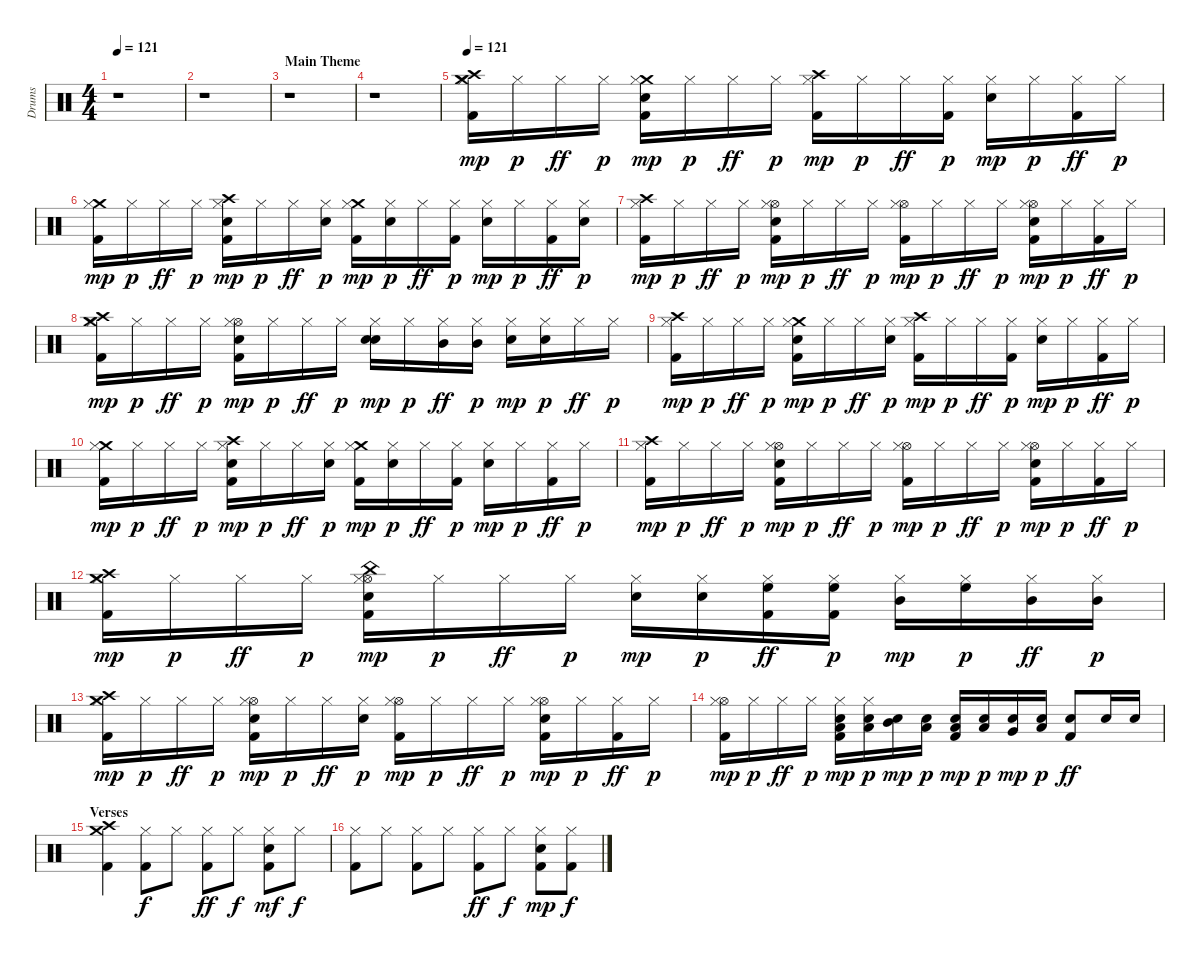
\track ("Drums" "Drums") {instrument percussion}
\staff {score}
\articulation defaults
\ts (4 4)
\tempo 121
\clef neutral
\ks c
r.1{dy mp} |
r.1 |
\section ("" "Main Theme")
r.1 |
r.1 |
\tempo 121
("Kick (hit) 2" "Crash high (hit)" "Crash medium (hit)" "Hi-Hat (closed)").16{balance 8} "Hi-Hat (closed)".16{dy p} "Hi-Hat (closed)".16{dy ff} "Hi-Hat (closed)".16{dy p} ("Crash medium (hit)" "Snare (hit) 2" "Kick (hit) 2" "Hi-Hat (closed)").16{dy mp} "Hi-Hat (closed)".16{dy p} "Hi-Hat (closed)".16{dy ff} "Hi-Hat (closed)".16{dy p} ("Crash high (hit)" "Kick (hit) 2" "Hi-Hat (closed)").16{dy mp} "Hi-Hat (closed)".16{dy p} "Hi-Hat (closed)".16{dy ff} ("Kick (hit) 2" "Hi-Hat (closed)").16{dy p} ("Electric Snare (hit)" "Hi-Hat (closed)").16{dy mp} "Hi-Hat (closed)".16{dy p} ("Kick (hit) 2" "Hi-Hat (closed)").16{dy ff} "Hi-Hat (closed)".16{dy p} |
("Crash medium (hit)" "Kick (hit) 2" "Hi-Hat (closed)").16{dy mp} "Hi-Hat (closed)".16{dy p} "Hi-Hat (closed)".16{dy ff} "Hi-Hat (closed)".16{dy p} ("Crash high (hit)" "Electric Snare (hit)" "Kick (hit) 2" "Hi-Hat (closed)").16{dy mp} "Hi-Hat (closed)".16{dy p} "Hi-Hat (closed)".16{dy ff} ("Electric Snare (hit)" "Hi-Hat (closed)").16{dy p} ("Kick (hit) 2" "Crash medium (hit)" "Hi-Hat (closed)").16{dy mp} ("Electric Snare (hit)" "Hi-Hat (closed)").16{dy p} "Hi-Hat (closed)".16{dy ff} ("Kick (hit) 2" "Hi-Hat (closed)").16{dy p} ("Electric Snare (hit)" "Hi-Hat (closed)").16{dy mp} "Hi-Hat (closed)".16{dy p} ("Kick (hit) 2" "Hi-Hat (closed)").16{dy ff} ("Electric Snare (hit)" "Hi-Hat (closed)").16{dy p} |
("Crash high (hit)" "Kick (hit) 2" "Hi-Hat (closed)").16{dy mp} "Hi-Hat (closed)".16{dy p} "Hi-Hat (closed)".16{dy ff} "Hi-Hat (closed)".16{dy p} ("Hi-Hat (open)" "Electric Snare (hit)" "Kick (hit) 2" "Hi-Hat (closed)").16{dy mp} "Hi-Hat (closed)".16{dy p} "Hi-Hat (closed)".16{dy ff} "Hi-Hat (closed)".16{dy p} ("Kick (hit) 2" "Hi-Hat (open)" "Hi-Hat (closed)").16{dy mp} "Hi-Hat (closed)".16{dy p} "Hi-Hat (closed)".16{dy ff} "Hi-Hat (closed)".16{dy p} ("Hi-Hat (open)" "Electric Snare (hit)" "Kick (hit) 2" "Hi-Hat (closed)").16{dy mp} "Hi-Hat (closed)".16{dy p} ("Kick (hit) 2" "Hi-Hat (closed)").16{dy ff} "Hi-Hat (closed)".16{dy p} |
("Kick (hit) 2" "Crash high (hit)" "Crash medium (hit)" "Hi-Hat (closed)").16{dy mp} "Hi-Hat (closed)".16{dy p} "Hi-Hat (closed)".16{dy ff} "Hi-Hat (closed)".16{dy p} ("Hi-Hat (open)" "Electric Snare (hit)" "Kick (hit) 2" "Hi-Hat (closed)").16{dy mp} "Hi-Hat (closed)".16{dy p} "Hi-Hat (closed)".16{dy ff} "Hi-Hat (closed)".16{dy p} ("Snare (hit) 2" "Electric Snare (hit)" "Hi-Hat (closed)").16{dy mp} "Hi-Hat (closed)".16{dy p} ("Mid Tom (hit)" "Hi-Hat (closed)").16{dy ff} ("Mid Tom (hit)" "Hi-Hat (closed)").16{dy p} ("Electric Snare (hit)" "Hi-Hat (closed)").16{dy mp} ("Electric Snare (hit)" "Hi-Hat (closed)").16{dy p} "Hi-Hat (closed)".16{dy ff} "Hi-Hat (closed)".16{dy p} |
("Crash high (hit)" "Kick (hit) 2" "Hi-Hat (closed)").16{dy mp} "Hi-Hat (closed)".16{dy p} "Hi-Hat (closed)".16{dy ff} "Hi-Hat (closed)".16{dy p} ("Crash medium (hit)" "Electric Snare (hit)" "Kick (hit) 2" "Hi-Hat (closed)").16{dy mp} "Hi-Hat (closed)".16{dy p} "Hi-Hat (closed)".16{dy ff} ("Electric Snare (hit)" "Hi-Hat (closed)").16{dy p} ("Crash high (hit)" "Kick (hit) 2" "Hi-Hat (closed)").16{dy mp} "Hi-Hat (closed)".16{dy p} "Hi-Hat (closed)".16{dy ff} ("Kick (hit) 2" "Hi-Hat (closed)").16{dy p} ("Electric Snare (hit)" "Hi-Hat (closed)").16{dy mp} "Hi-Hat (closed)".16{dy p} ("Kick (hit) 2" "Hi-Hat (closed)").16{dy ff} "Hi-Hat (closed)".16{dy p} |
("Crash medium (hit)" "Kick (hit) 2" "Hi-Hat (closed)").16{dy mp} "Hi-Hat (closed)".16{dy p} "Hi-Hat (closed)".16{dy ff} "Hi-Hat (closed)".16{dy p} ("Crash high (hit)" "Electric Snare (hit)" "Kick (hit) 2" "Hi-Hat (closed)").16{dy mp} "Hi-Hat (closed)".16{dy p} "Hi-Hat (closed)".16{dy ff} ("Electric Snare (hit)" "Hi-Hat (closed)").16{dy p} ("Kick (hit) 2" "Crash medium (hit)" "Hi-Hat (closed)").16{dy mp} ("Electric Snare (hit)" "Hi-Hat (closed)").16{dy p} "Hi-Hat (closed)".16{dy ff} ("Kick (hit) 2" "Hi-Hat (closed)").16{dy p} ("Electric Snare (hit)" "Hi-Hat (closed)").16{dy mp} "Hi-Hat (closed)".16{dy p} ("Kick (hit) 2" "Hi-Hat (closed)").16{dy ff} "Hi-Hat (closed)".16{dy p} |
("Crash high (hit)" "Kick (hit) 2" "Hi-Hat (closed)").16{dy mp} "Hi-Hat (closed)".16{dy p} "Hi-Hat (closed)".16{dy ff} "Hi-Hat (closed)".16{dy p} ("Hi-Hat (open)" "Electric Snare (hit)" "Kick (hit) 2" "Hi-Hat (closed)").16{dy mp} "Hi-Hat (closed)".16{dy p} "Hi-Hat (closed)".16{dy ff} "Hi-Hat (closed)".16{dy p} ("Kick (hit) 2" "Hi-Hat (open)" "Hi-Hat (closed)").16{dy mp} "Hi-Hat (closed)".16{dy p} "Hi-Hat (closed)".16{dy ff} "Hi-Hat (closed)".16{dy p} ("Hi-Hat (open)" "Electric Snare (hit)" "Kick (hit) 2" "Hi-Hat (closed)").16{dy mp} "Hi-Hat (closed)".16{dy p} ("Kick (hit) 2" "Hi-Hat (closed)").16{dy ff} "Hi-Hat (closed)".16{dy p} |
("Kick (hit) 2" "Crash high (hit)" "Crash medium (hit)" "Hi-Hat (closed)").16{dy mp} "Hi-Hat (closed)".16{dy p} "Hi-Hat (closed)".16{dy ff} "Hi-Hat (closed)".16{dy p} ("Hi-Hat (open)" "China (hit)" "Electric Snare (hit)" "Kick (hit) 2" "Hi-Hat (closed)").16{dy mp} "Hi-Hat (closed)".16{dy p} "Hi-Hat (closed)".16{dy ff} "Hi-Hat (closed)".16{dy p} ("Snare (hit) 2" "Hi-Hat (closed)").16{dy mp} ("Electric Snare (hit)" "Hi-Hat (closed)").16{dy p} ("Kick (hit) 2" "High Floor Tom (hit)" "Hi-Hat (closed)").16{dy ff} ("Kick (hit) 2" "High Floor Tom (hit)" "Hi-Hat (closed)").16{dy p} ("Mid Tom (hit)" "Hi-Hat (closed)").16{dy mp} ("High Floor Tom (hit)" "Hi-Hat (closed)").16{dy p} ("Mid Tom (hit)" "Hi-Hat (closed)").16{dy ff} ("Mid Tom (hit)" "Hi-Hat (closed)").16{dy p} |
("Crash high (hit)" "Crash medium (hit)" "Kick (hit) 2" "Hi-Hat (closed)").16{dy mp} "Hi-Hat (closed)".16{dy p} "Hi-Hat (closed)".16{dy ff} "Hi-Hat (closed)".16{dy p} ("Hi-Hat (open)" "Kick (hit) 2" "Electric Snare (hit)" "Hi-Hat (closed)").16{dy mp} "Hi-Hat (closed)".16{dy p} "Hi-Hat (closed)".16{dy ff} ("Electric Snare (hit)" "Hi-Hat (closed)").16{dy p} ("Hi-Hat (open)" "Kick (hit) 2" "Hi-Hat (closed)").16{dy mp} "Hi-Hat (closed)".16{dy p} "Hi-Hat (closed)".16{dy ff} "Hi-Hat (closed)".16{dy p} ("Hi-Hat (open)" "Kick (hit) 2" "Electric Snare (hit)" "Hi-Hat (closed)").16{dy mp} "Hi-Hat (closed)".16{dy p} ("Kick (hit) 2" "Hi-Hat (closed)").16{dy ff} "Hi-Hat (closed)".16{dy p} |
("Kick (hit) 2" "Hi-Hat (open)" "Hi-Hat (closed)").16{dy mp} "Hi-Hat (closed)".16{dy p} "Hi-Hat (closed)".16{dy ff} "Hi-Hat (closed)".16{dy p} ("Kick (hit) 2" "Low Tom (hit)" "Electric Snare (hit)" "Hi-Hat (closed)").16{dy mp} ("Low Tom (hit)" "Electric Snare (hit)" "Hi-Hat (closed)").16{dy p} ("Mid Tom (hit)" "Electric Snare (hit)").16{dy mp} ("Low Tom (hit)" "Electric Snare (hit)").16{dy p} ("Kick (hit) 2" "Low Tom (hit)" "Electric Snare (hit)").16{dy mp} ("Low Tom (hit)" "Electric Snare (hit)").16{dy p} ("Very Low Tom (hit)" "Electric Snare (hit)").16{dy mp} ("Low Tom (hit)" "Electric Snare (hit)").16{dy p} ("Kick (hit) 2" "Snare (hit) 2").8{dy ff} "Snare (hit) 2".16 "Electric Snare (hit)".16 |
\section ("" "Verses")
("Kick (hit) 2" "Crash high (hit)" "Crash medium (hit)").4 ("Kick (hit) 2" "Hi-Hat (closed)").8{dy f} "Hi-Hat (closed)".8 ("Kick (hit) 2" "Hi-Hat (closed)").8{dy ff} "Hi-Hat (closed)".8{dy f} ("Kick (hit) 2" "Hi-Hat (closed)" "Electric Snare (hit)").8{dy mf} "Hi-Hat (closed)".8{dy f} |
("Kick (hit) 2" "Hi-Hat (closed)").8 "Hi-Hat (closed)".8 ("Kick (hit) 2" "Hi-Hat (closed)").8 "Hi-Hat (closed)".8 ("Kick (hit) 2" "Hi-Hat (closed)").8{dy ff} "Hi-Hat (closed)".8{dy f} ("Kick (hit) 2" "Hi-Hat (closed)" "Electric Snare (hit)").8{dy mp} ("Kick (hit) 2" "Hi-Hat (closed)").8{dy f}
